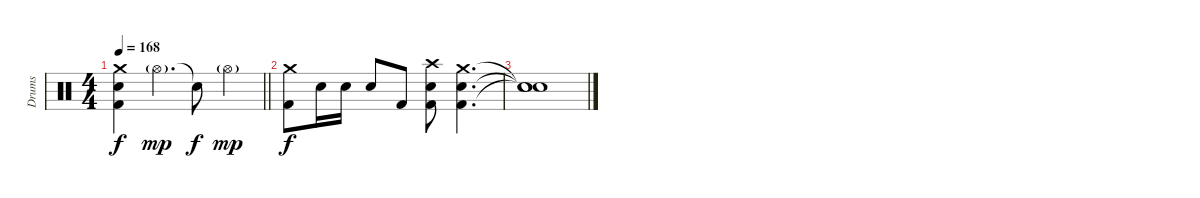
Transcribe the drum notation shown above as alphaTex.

\track ("Drums" "Drums") {instrument percussion}
\staff {score}
\articulation defaults
\ts (4 4)
\tempo 168
\clef neutral
\barLineRight lightlight
\ks c
("Crash medium (hit)" "Snare (hit) 2" "Kick (hit) 2").4{dy f} "Hi-Hat (open)"{g}.4{d dy mp} "Snare (hit)"{t}.8{dy f} "Hi-Hat (open)"{g}.4{dy mp} |
("Crash medium (hit)" "Kick (hit) 2").8{dy f} "Snare (hit) 2".16 "Snare (hit) 2".16 "Snare (hit) 2".8 "Kick (hit) 2".8 ("Crash high (hit)" "Snare (hit) 2" "Kick (hit) 2").8 ("Crash medium (hit)" "Snare (hit) 2" "Kick (hit) 2").4{d} |
("Snare (hit)"{t} "Snare (hit)"{t} "Snare (hit)"{t}).1
